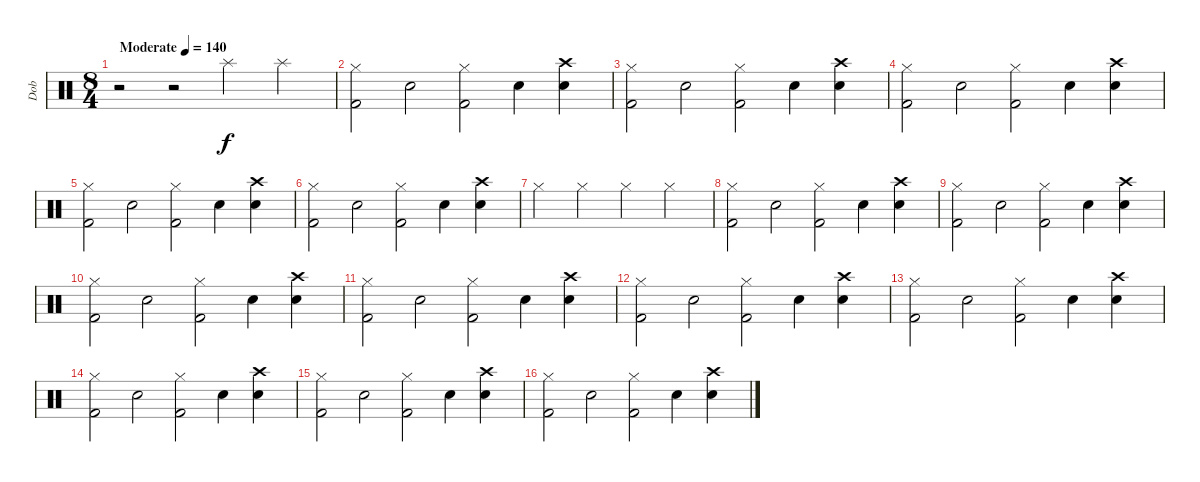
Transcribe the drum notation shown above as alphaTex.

\track ("Dob" "Dob") {instrument percussion}
\staff {score}
\articulation defaults
\ts (8 4)
\tempo (140 "Moderate")
\clef neutral
\ks c
r.2{dy f} r.2 "Splash (hit)".2 "Splash (hit)".2 |
("Kick (hit) 2" "Hi-Hat (closed)").2 "Snare (hit) 2".2 ("Kick (hit) 2" "Hi-Hat (closed)").2 "Snare (hit) 2".4 ("Snare (hit) 2" "Crash high (hit)").4 |
("Kick (hit) 2" "Hi-Hat (closed)").2 "Snare (hit) 2".2 ("Kick (hit) 2" "Hi-Hat (closed)").2 "Snare (hit) 2".4 ("Snare (hit) 2" "Crash high (hit)").4 |
("Kick (hit) 2" "Hi-Hat (closed)").2 "Snare (hit) 2".2 ("Kick (hit) 2" "Hi-Hat (closed)").2 "Snare (hit) 2".4 ("Snare (hit) 2" "Crash high (hit)").4 |
("Kick (hit) 2" "Hi-Hat (closed)").2 "Snare (hit) 2".2 ("Kick (hit) 2" "Hi-Hat (closed)").2 "Snare (hit) 2".4 ("Snare (hit) 2" "Crash high (hit)").4 |
("Kick (hit) 2" "Hi-Hat (closed)").2 "Snare (hit) 2".2 ("Kick (hit) 2" "Hi-Hat (closed)").2 "Snare (hit) 2".4 ("Snare (hit) 2" "Crash high (hit)").4 |
"Hi-Hat (closed)".2 "Hi-Hat (closed)".2 "Hi-Hat (closed)".2 "Hi-Hat (closed)".2 |
("Kick (hit) 2" "Hi-Hat (closed)").2 "Snare (hit) 2".2 ("Kick (hit) 2" "Hi-Hat (closed)").2 "Snare (hit) 2".4 ("Snare (hit) 2" "Crash high (hit)").4 |
("Kick (hit) 2" "Hi-Hat (closed)").2 "Snare (hit) 2".2 ("Kick (hit) 2" "Hi-Hat (closed)").2 "Snare (hit) 2".4 ("Snare (hit) 2" "Crash high (hit)").4 |
("Kick (hit) 2" "Hi-Hat (closed)").2 "Snare (hit) 2".2 ("Kick (hit) 2" "Hi-Hat (closed)").2 "Snare (hit) 2".4 ("Snare (hit) 2" "Crash high (hit)").4 |
("Kick (hit) 2" "Hi-Hat (closed)").2 "Snare (hit) 2".2 ("Kick (hit) 2" "Hi-Hat (closed)").2 "Snare (hit) 2".4 ("Snare (hit) 2" "Crash high (hit)").4 |
("Kick (hit) 2" "Hi-Hat (closed)").2 "Snare (hit) 2".2 ("Kick (hit) 2" "Hi-Hat (closed)").2 "Snare (hit) 2".4 ("Snare (hit) 2" "Crash high (hit)").4 |
("Kick (hit) 2" "Hi-Hat (closed)").2 "Snare (hit) 2".2 ("Kick (hit) 2" "Hi-Hat (closed)").2 "Snare (hit) 2".4 ("Snare (hit) 2" "Crash high (hit)").4 |
("Kick (hit) 2" "Hi-Hat (closed)").2 "Snare (hit) 2".2 ("Kick (hit) 2" "Hi-Hat (closed)").2 "Snare (hit) 2".4 ("Snare (hit) 2" "Crash high (hit)").4 |
("Kick (hit) 2" "Hi-Hat (closed)").2 "Snare (hit) 2".2 ("Kick (hit) 2" "Hi-Hat (closed)").2 "Snare (hit) 2".4 ("Snare (hit) 2" "Crash high (hit)").4 |
("Kick (hit) 2" "Hi-Hat (closed)").2 "Snare (hit) 2".2 ("Kick (hit) 2" "Hi-Hat (closed)").2 "Snare (hit) 2".4 ("Snare (hit) 2" "Crash high (hit)").4
